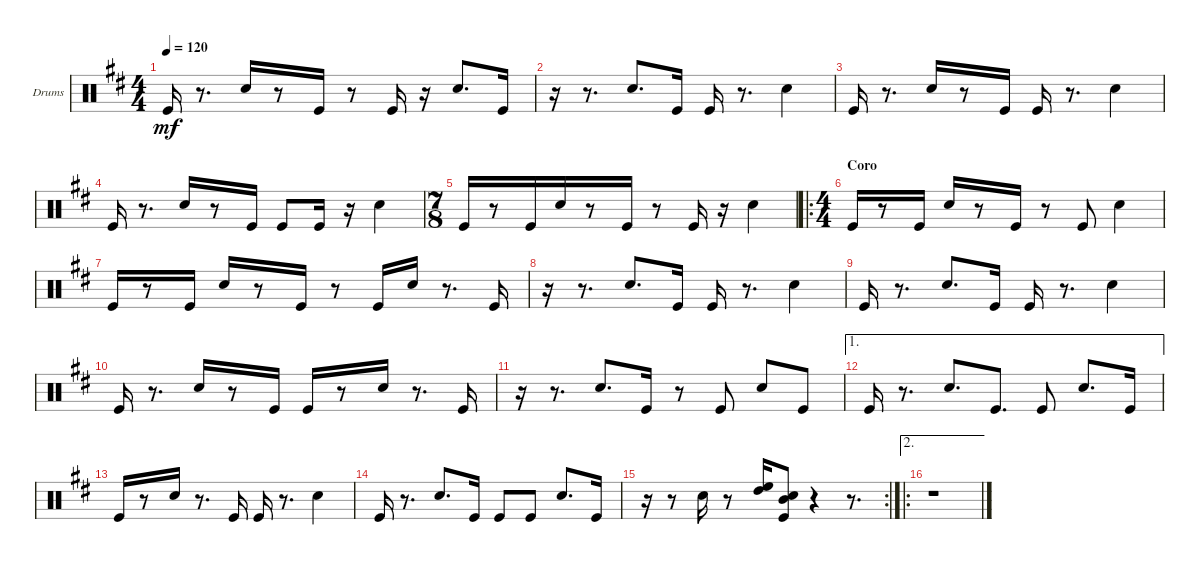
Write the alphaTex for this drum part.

\defaultSystemsLayout 4
\bracketExtendMode groupsimilarinstruments
\firstSystemTrackNameOrientation horizontal
\otherSystemsTrackNameOrientation horizontal
\track ("Drumkit" "Drums") {multiBarRest instrument percussion}
\staff {score}
\articulation defaults
\ts (4 4)
\tempo 120
\clef neutral
\scale
0.333333
\ks d "Kick (hit)".16{dy mf}
r.8{d} "Snare (hit) 2".16 r.8 "Kick (hit)".16 r.8 "Kick (hit)".16 r.16 "Snare (hit) 2".8{d} "Kick (hit)".16 |
\scale
0.333333 r.16 r.8{d} "Snare (hit) 2".8{d} "Kick (hit)".16 "Kick (hit)".16 r.8{d} "Snare (hit) 2".4 |
\scale
0.333333 "Kick (hit)".16 r.8{d} "Snare (hit) 2".16 r.8 "Kick (hit)".16 "Kick (hit)".16 r.8{d} "Snare (hit) 2".4 |
\scale
0.18328 "Kick (hit)".16 r.8{d} "Snare (hit) 2".16 r.8 "Kick (hit)".16 "Kick (hit)".8 "Kick (hit)".16 r.16 "Snare (hit) 2".4 |
\ts (7 8)
\scale
0.389068 "Kick (hit)".16 r.8 "Kick (hit)".16 "Snare (hit) 2".16 r.8 "Kick (hit)".16 r.8 "Kick (hit)".16 r.16 "Snare (hit) 2".4 |
\ro
\ts (4 4)
\section ("" "Coro")
\scale
0.427653 "Kick (hit)".16 r.8 "Kick (hit)".16 "Snare (hit) 2".16 r.8 "Kick (hit)".16 r.8 "Kick (hit)".8 "Snare (hit) 2".4 |
\scale
0.333333 "Kick (hit)".16 r.8 "Kick (hit)".16 "Snare (hit) 2".16 r.8 "Kick (hit)".16 r.8 "Kick (hit)".16 "Snare (hit) 2".16 r.8{d} "Kick (hit)".16 |
\scale
0.333333 r.16 r.8{d} "Snare (hit) 2".8{d} "Kick (hit)".16 "Kick (hit)".16 r.8{d} "Snare (hit) 2".4 |
\scale
0.333333 "Kick (hit)".16 r.8{d} "Snare (hit) 2".8{d} "Kick (hit)".16 "Kick (hit)".16 r.8{d} "Snare (hit) 2".4 |
\scale
0.333333 "Kick (hit)".16 r.8{d} "Snare (hit) 2".16 r.8 "Kick (hit)".16 "Kick (hit)".16 r.8 "Snare (hit) 2".16 r.8{d} "Kick (hit)".16 |
\scale
0.333333 r.16 r.8{d} "Snare (hit) 2".8{d} "Kick (hit)".16 r.8 "Kick (hit)".8 "Snare (hit) 2".8 "Kick (hit)".8 |
\ae 1
\scale
0.333333 "Kick (hit)".16 r.8{d} "Snare (hit) 2".8{d} "Kick (hit)".8{d} "Kick (hit)".8 "Snare (hit) 2".8{d} "Kick (hit)".16 |
\scale
0.322034 "Kick (hit)".16 r.8 "Snare (hit) 2".16 r.8{d} "Kick (hit)".16 "Kick (hit)".16 r.8{d} "Snare (hit) 2".4 |
\scale
0.322034 "Kick (hit)".16 r.8{d} "Snare (hit) 2".8{d} "Kick (hit)".16 "Kick (hit)".8 "Kick (hit)".8 "Snare (hit) 2".8{d} "Kick (hit)".16 |
\rc 2
\scale
0.355932 r.16 r.8 "Snare (hit) 2".16 r.8 ("High Floor Tom (hit)" "High Tom (hit)").16 ("Mid Tom (hit)" "Snare (hit) 2" "Kick (hit)").8 r.4 r.8{d} |
\ae 2
\ro
\scale
0.377049 r.1
